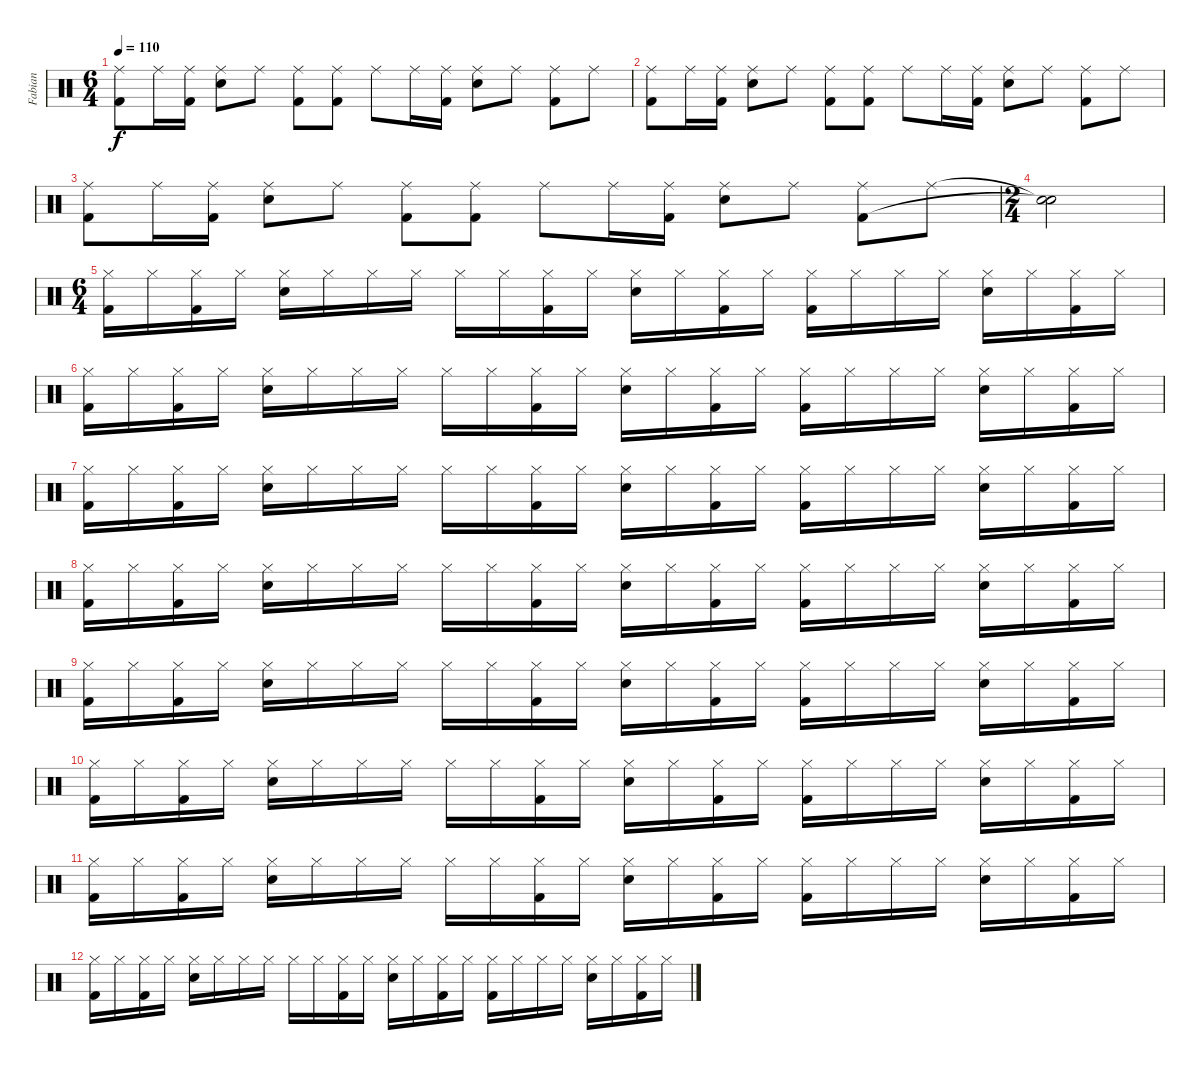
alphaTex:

\track ("Fabian" "Fabian") {instrument percussion}
\staff {score}
\articulation defaults
\ts (6 4)
\tempo 110
\clef neutral
\ks c
("Ride (middle)" "Kick (hit) 2").8{dy f} "Ride (middle)".16 ("Ride (middle)" "Kick (hit) 2").16 ("Ride (middle)" "Snare (hit) 2").8 "Ride (middle)".8 ("Ride (middle)" "Kick (hit) 2").8 ("Ride (middle)" "Kick (hit) 2").8 "Ride (middle)".8 "Ride (middle)".16 ("Ride (middle)" "Kick (hit) 2").16 ("Ride (middle)" "Snare (hit) 2").8 "Ride (middle)".8 ("Ride (middle)" "Kick (hit) 2").8 "Ride (middle)".8 |
("Ride (middle)" "Kick (hit) 2").8 "Ride (middle)".16 ("Ride (middle)" "Kick (hit) 2").16 ("Ride (middle)" "Snare (hit) 2").8 "Ride (middle)".8 ("Ride (middle)" "Kick (hit) 2").8 ("Ride (middle)" "Kick (hit) 2").8 "Ride (middle)".8 "Ride (middle)".16 ("Ride (middle)" "Kick (hit) 2").16 ("Ride (middle)" "Snare (hit) 2").8 "Ride (middle)".8 ("Ride (middle)" "Kick (hit) 2").8 "Ride (middle)".8 |
("Ride (middle)" "Kick (hit) 2").8 "Ride (middle)".16 ("Ride (middle)" "Kick (hit) 2").16 ("Ride (middle)" "Snare (hit) 2").8 "Ride (middle)".8 ("Ride (middle)" "Kick (hit) 2").8 ("Ride (middle)" "Kick (hit) 2").8 "Ride (middle)".8 "Ride (middle)".16 ("Ride (middle)" "Kick (hit) 2").16 ("Ride (middle)" "Snare (hit) 2").8 "Ride (middle)".8 ("Ride (middle)" "Kick (hit) 2").8 "Ride (middle)".8 |
\ts (2 4)
("Snare (hit)"{t} "Snare (hit)"{t}).2 |
\ts (6 4)
("Hi-Hat (closed)" "Kick (hit) 2").16 "Hi-Hat (closed)".16 ("Hi-Hat (closed)" "Kick (hit) 2").16 "Hi-Hat (closed)".16 ("Hi-Hat (closed)" "Snare (hit) 2").16 "Hi-Hat (closed)".16 "Hi-Hat (closed)".16 "Hi-Hat (closed)".16 "Hi-Hat (closed)".16 "Hi-Hat (closed)".16 ("Hi-Hat (closed)" "Kick (hit) 2").16 "Hi-Hat (closed)".16 ("Hi-Hat (closed)" "Snare (hit) 2").16 "Hi-Hat (closed)".16 ("Hi-Hat (closed)" "Kick (hit) 2").16 "Hi-Hat (closed)".16 ("Hi-Hat (closed)" "Kick (hit) 2").16 "Hi-Hat (closed)".16 "Hi-Hat (closed)".16 "Hi-Hat (closed)".16 ("Hi-Hat (closed)" "Snare (hit) 2").16 "Hi-Hat (closed)".16 ("Hi-Hat (closed)" "Kick (hit) 2").16 "Hi-Hat (closed)".16 |
("Hi-Hat (closed)" "Kick (hit) 2").16 "Hi-Hat (closed)".16 ("Hi-Hat (closed)" "Kick (hit) 2").16 "Hi-Hat (closed)".16 ("Hi-Hat (closed)" "Snare (hit) 2").16 "Hi-Hat (closed)".16 "Hi-Hat (closed)".16 "Hi-Hat (closed)".16 "Hi-Hat (closed)".16 "Hi-Hat (closed)".16 ("Hi-Hat (closed)" "Kick (hit) 2").16 "Hi-Hat (closed)".16 ("Hi-Hat (closed)" "Snare (hit) 2").16 "Hi-Hat (closed)".16 ("Hi-Hat (closed)" "Kick (hit) 2").16 "Hi-Hat (closed)".16 ("Hi-Hat (closed)" "Kick (hit) 2").16 "Hi-Hat (closed)".16 "Hi-Hat (closed)".16 "Hi-Hat (closed)".16 ("Hi-Hat (closed)" "Snare (hit) 2").16 "Hi-Hat (closed)".16 ("Hi-Hat (closed)" "Kick (hit) 2").16 "Hi-Hat (closed)".16 |
("Hi-Hat (closed)" "Kick (hit) 2").16 "Hi-Hat (closed)".16 ("Hi-Hat (closed)" "Kick (hit) 2").16 "Hi-Hat (closed)".16 ("Hi-Hat (closed)" "Snare (hit) 2").16 "Hi-Hat (closed)".16 "Hi-Hat (closed)".16 "Hi-Hat (closed)".16 "Hi-Hat (closed)".16 "Hi-Hat (closed)".16 ("Hi-Hat (closed)" "Kick (hit) 2").16 "Hi-Hat (closed)".16 ("Hi-Hat (closed)" "Snare (hit) 2").16 "Hi-Hat (closed)".16 ("Hi-Hat (closed)" "Kick (hit) 2").16 "Hi-Hat (closed)".16 ("Hi-Hat (closed)" "Kick (hit) 2").16 "Hi-Hat (closed)".16 "Hi-Hat (closed)".16 "Hi-Hat (closed)".16 ("Hi-Hat (closed)" "Snare (hit) 2").16 "Hi-Hat (closed)".16 ("Hi-Hat (closed)" "Kick (hit) 2").16 "Hi-Hat (closed)".16 |
("Hi-Hat (closed)" "Kick (hit) 2").16 "Hi-Hat (closed)".16 ("Hi-Hat (closed)" "Kick (hit) 2").16 "Hi-Hat (closed)".16 ("Hi-Hat (closed)" "Snare (hit) 2").16 "Hi-Hat (closed)".16 "Hi-Hat (closed)".16 "Hi-Hat (closed)".16 "Hi-Hat (closed)".16 "Hi-Hat (closed)".16 ("Hi-Hat (closed)" "Kick (hit) 2").16 "Hi-Hat (closed)".16 ("Hi-Hat (closed)" "Snare (hit) 2").16 "Hi-Hat (closed)".16 ("Hi-Hat (closed)" "Kick (hit) 2").16 "Hi-Hat (closed)".16 ("Hi-Hat (closed)" "Kick (hit) 2").16 "Hi-Hat (closed)".16 "Hi-Hat (closed)".16 "Hi-Hat (closed)".16 ("Hi-Hat (closed)" "Snare (hit) 2").16 "Hi-Hat (closed)".16 ("Hi-Hat (closed)" "Kick (hit) 2").16 "Hi-Hat (closed)".16 |
("Hi-Hat (closed)" "Kick (hit) 2").16 "Hi-Hat (closed)".16 ("Hi-Hat (closed)" "Kick (hit) 2").16 "Hi-Hat (closed)".16 ("Hi-Hat (closed)" "Snare (hit) 2").16 "Hi-Hat (closed)".16 "Hi-Hat (closed)".16 "Hi-Hat (closed)".16 "Hi-Hat (closed)".16 "Hi-Hat (closed)".16 ("Hi-Hat (closed)" "Kick (hit) 2").16 "Hi-Hat (closed)".16 ("Hi-Hat (closed)" "Snare (hit) 2").16 "Hi-Hat (closed)".16 ("Hi-Hat (closed)" "Kick (hit) 2").16 "Hi-Hat (closed)".16 ("Hi-Hat (closed)" "Kick (hit) 2").16 "Hi-Hat (closed)".16 "Hi-Hat (closed)".16 "Hi-Hat (closed)".16 ("Hi-Hat (closed)" "Snare (hit) 2").16 "Hi-Hat (closed)".16 ("Hi-Hat (closed)" "Kick (hit) 2").16 "Hi-Hat (closed)".16 |
("Hi-Hat (closed)" "Kick (hit) 2").16 "Hi-Hat (closed)".16 ("Hi-Hat (closed)" "Kick (hit) 2").16 "Hi-Hat (closed)".16 ("Hi-Hat (closed)" "Snare (hit) 2").16 "Hi-Hat (closed)".16 "Hi-Hat (closed)".16 "Hi-Hat (closed)".16 "Hi-Hat (closed)".16 "Hi-Hat (closed)".16 ("Hi-Hat (closed)" "Kick (hit) 2").16 "Hi-Hat (closed)".16 ("Hi-Hat (closed)" "Snare (hit) 2").16 "Hi-Hat (closed)".16 ("Hi-Hat (closed)" "Kick (hit) 2").16 "Hi-Hat (closed)".16 ("Hi-Hat (closed)" "Kick (hit) 2").16 "Hi-Hat (closed)".16 "Hi-Hat (closed)".16 "Hi-Hat (closed)".16 ("Hi-Hat (closed)" "Snare (hit) 2").16 "Hi-Hat (closed)".16 ("Hi-Hat (closed)" "Kick (hit) 2").16 "Hi-Hat (closed)".16 |
("Hi-Hat (closed)" "Kick (hit) 2").16 "Hi-Hat (closed)".16 ("Hi-Hat (closed)" "Kick (hit) 2").16 "Hi-Hat (closed)".16 ("Hi-Hat (closed)" "Snare (hit) 2").16 "Hi-Hat (closed)".16 "Hi-Hat (closed)".16 "Hi-Hat (closed)".16 "Hi-Hat (closed)".16 "Hi-Hat (closed)".16 ("Hi-Hat (closed)" "Kick (hit) 2").16 "Hi-Hat (closed)".16 ("Hi-Hat (closed)" "Snare (hit) 2").16 "Hi-Hat (closed)".16 ("Hi-Hat (closed)" "Kick (hit) 2").16 "Hi-Hat (closed)".16 ("Hi-Hat (closed)" "Kick (hit) 2").16 "Hi-Hat (closed)".16 "Hi-Hat (closed)".16 "Hi-Hat (closed)".16 ("Hi-Hat (closed)" "Snare (hit) 2").16 "Hi-Hat (closed)".16 ("Hi-Hat (closed)" "Kick (hit) 2").16 "Hi-Hat (closed)".16 |
("Hi-Hat (closed)" "Kick (hit) 2").16 "Hi-Hat (closed)".16 ("Hi-Hat (closed)" "Kick (hit) 2").16 "Hi-Hat (closed)".16 ("Hi-Hat (closed)" "Snare (hit) 2").16 "Hi-Hat (closed)".16 "Hi-Hat (closed)".16 "Hi-Hat (closed)".16 "Hi-Hat (closed)".16 "Hi-Hat (closed)".16 ("Hi-Hat (closed)" "Kick (hit) 2").16 "Hi-Hat (closed)".16 ("Hi-Hat (closed)" "Snare (hit) 2").16 "Hi-Hat (closed)".16 ("Hi-Hat (closed)" "Kick (hit) 2").16 "Hi-Hat (closed)".16 ("Hi-Hat (closed)" "Kick (hit) 2").16 "Hi-Hat (closed)".16 "Hi-Hat (closed)".16 "Hi-Hat (closed)".16 ("Hi-Hat (closed)" "Snare (hit) 2").16 "Hi-Hat (closed)".16 ("Hi-Hat (closed)" "Kick (hit) 2").16 "Hi-Hat (closed)".16
